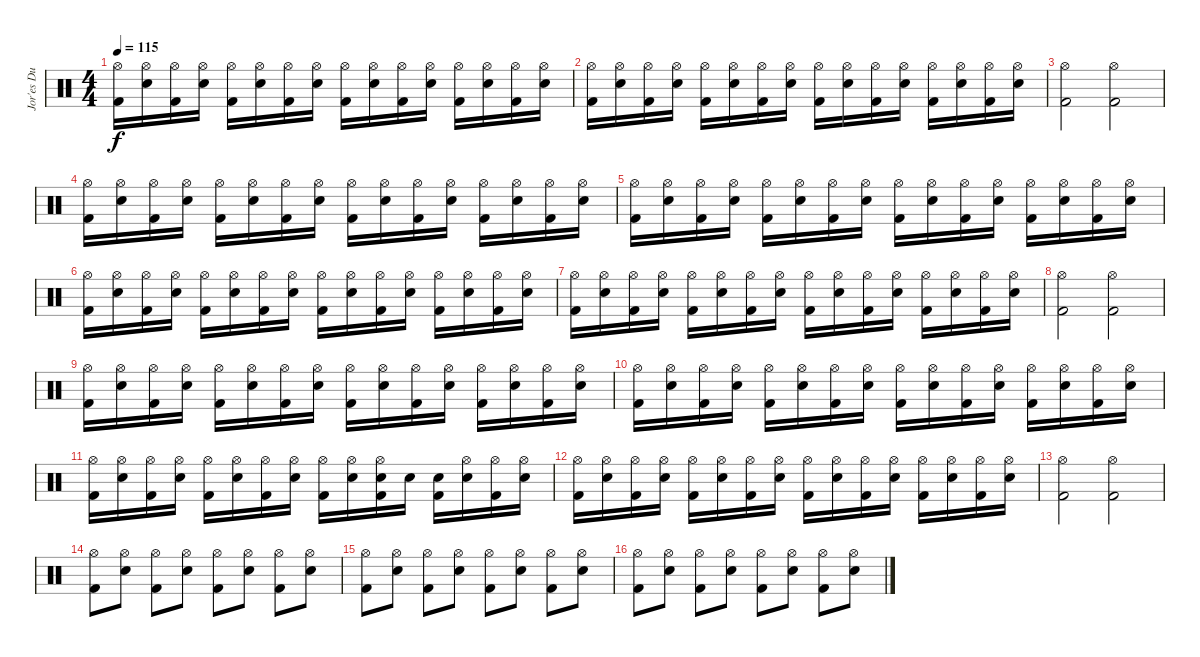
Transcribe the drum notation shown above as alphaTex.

\track ("Jor'es Du True" "Jor'es Du ") {instrument percussion}
\staff {score}
\articulation defaults
\ts (4 4)
\tempo 115
\clef neutral
\ks c
("Hi-Hat (open)" "Kick (hit) 2").16{dy f} ("Hi-Hat (open)" "Electric Snare (hit)").16 ("Hi-Hat (open)" "Kick (hit) 2").16 ("Hi-Hat (open)" "Electric Snare (hit)").16 ("Hi-Hat (open)" "Kick (hit) 2").16 ("Hi-Hat (open)" "Electric Snare (hit)").16 ("Hi-Hat (open)" "Kick (hit) 2").16 ("Hi-Hat (open)" "Electric Snare (hit)").16 ("Hi-Hat (open)" "Kick (hit) 2").16 ("Hi-Hat (open)" "Electric Snare (hit)").16 ("Hi-Hat (open)" "Kick (hit) 2").16 ("Hi-Hat (open)" "Electric Snare (hit)").16 ("Hi-Hat (open)" "Kick (hit) 2").16 ("Hi-Hat (open)" "Electric Snare (hit)").16 ("Hi-Hat (open)" "Kick (hit) 2").16 ("Hi-Hat (open)" "Electric Snare (hit)").16 |
("Hi-Hat (open)" "Kick (hit) 2").16 ("Hi-Hat (open)" "Electric Snare (hit)").16 ("Hi-Hat (open)" "Kick (hit) 2").16 ("Hi-Hat (open)" "Electric Snare (hit)").16 ("Hi-Hat (open)" "Kick (hit) 2").16 ("Hi-Hat (open)" "Electric Snare (hit)").16 ("Hi-Hat (open)" "Kick (hit) 2").16 ("Hi-Hat (open)" "Electric Snare (hit)").16 ("Hi-Hat (open)" "Kick (hit) 2").16 ("Hi-Hat (open)" "Electric Snare (hit)").16 ("Hi-Hat (open)" "Kick (hit) 2").16 ("Hi-Hat (open)" "Electric Snare (hit)").16 ("Hi-Hat (open)" "Kick (hit) 2").16 ("Hi-Hat (open)" "Electric Snare (hit)").16 ("Hi-Hat (open)" "Kick (hit) 2").16 ("Hi-Hat (open)" "Electric Snare (hit)").16 |
("Hi-Hat (open)" "Kick (hit) 2").2 ("Hi-Hat (open)" "Kick (hit) 2").2 |
("Hi-Hat (open)" "Kick (hit) 2").16 ("Hi-Hat (open)" "Electric Snare (hit)").16 ("Hi-Hat (open)" "Kick (hit) 2").16 ("Hi-Hat (open)" "Electric Snare (hit)").16 ("Hi-Hat (open)" "Kick (hit) 2").16 ("Hi-Hat (open)" "Electric Snare (hit)").16 ("Hi-Hat (open)" "Kick (hit) 2").16 ("Hi-Hat (open)" "Electric Snare (hit)").16 ("Hi-Hat (open)" "Kick (hit) 2").16 ("Hi-Hat (open)" "Electric Snare (hit)").16 ("Hi-Hat (open)" "Kick (hit) 2").16 ("Hi-Hat (open)" "Electric Snare (hit)").16 ("Hi-Hat (open)" "Kick (hit) 2").16 ("Hi-Hat (open)" "Electric Snare (hit)").16 ("Hi-Hat (open)" "Kick (hit) 2").16 ("Hi-Hat (open)" "Electric Snare (hit)").16 |
("Hi-Hat (open)" "Kick (hit) 2").16 ("Hi-Hat (open)" "Electric Snare (hit)").16 ("Hi-Hat (open)" "Kick (hit) 2").16 ("Hi-Hat (open)" "Electric Snare (hit)").16 ("Hi-Hat (open)" "Kick (hit) 2").16 ("Hi-Hat (open)" "Electric Snare (hit)").16 ("Hi-Hat (open)" "Kick (hit) 2").16 ("Hi-Hat (open)" "Electric Snare (hit)").16 ("Hi-Hat (open)" "Kick (hit) 2").16 ("Hi-Hat (open)" "Electric Snare (hit)").16 ("Hi-Hat (open)" "Kick (hit) 2").16 ("Hi-Hat (open)" "Electric Snare (hit)").16 ("Hi-Hat (open)" "Kick (hit) 2").16 ("Hi-Hat (open)" "Electric Snare (hit)").16 ("Hi-Hat (open)" "Kick (hit) 2").16 ("Hi-Hat (open)" "Electric Snare (hit)").16 |
("Hi-Hat (open)" "Kick (hit) 2").16 ("Hi-Hat (open)" "Electric Snare (hit)").16 ("Hi-Hat (open)" "Kick (hit) 2").16 ("Hi-Hat (open)" "Electric Snare (hit)").16 ("Hi-Hat (open)" "Kick (hit) 2").16 ("Hi-Hat (open)" "Electric Snare (hit)").16 ("Hi-Hat (open)" "Kick (hit) 2").16 ("Hi-Hat (open)" "Electric Snare (hit)").16 ("Hi-Hat (open)" "Kick (hit) 2").16 ("Hi-Hat (open)" "Electric Snare (hit)").16 ("Hi-Hat (open)" "Kick (hit) 2").16 ("Hi-Hat (open)" "Electric Snare (hit)").16 ("Hi-Hat (open)" "Kick (hit) 2").16 ("Hi-Hat (open)" "Electric Snare (hit)").16 ("Hi-Hat (open)" "Kick (hit) 2").16 ("Hi-Hat (open)" "Electric Snare (hit)").16 |
("Hi-Hat (open)" "Kick (hit) 2").16 ("Hi-Hat (open)" "Electric Snare (hit)").16 ("Hi-Hat (open)" "Kick (hit) 2").16 ("Hi-Hat (open)" "Electric Snare (hit)").16 ("Hi-Hat (open)" "Kick (hit) 2").16 ("Hi-Hat (open)" "Electric Snare (hit)").16 ("Hi-Hat (open)" "Kick (hit) 2").16 ("Hi-Hat (open)" "Electric Snare (hit)").16 ("Hi-Hat (open)" "Kick (hit) 2").16 ("Hi-Hat (open)" "Electric Snare (hit)").16 ("Hi-Hat (open)" "Kick (hit) 2").16 ("Hi-Hat (open)" "Electric Snare (hit)").16 ("Hi-Hat (open)" "Kick (hit) 2").16 ("Hi-Hat (open)" "Electric Snare (hit)").16 ("Hi-Hat (open)" "Kick (hit) 2").16 ("Hi-Hat (open)" "Electric Snare (hit)").16 |
("Hi-Hat (open)" "Kick (hit) 2").2 ("Hi-Hat (open)" "Kick (hit) 2").2 |
("Hi-Hat (open)" "Kick (hit) 2").16 ("Hi-Hat (open)" "Electric Snare (hit)").16 ("Hi-Hat (open)" "Kick (hit) 2").16 ("Hi-Hat (open)" "Electric Snare (hit)").16 ("Hi-Hat (open)" "Kick (hit) 2").16 ("Hi-Hat (open)" "Electric Snare (hit)").16 ("Hi-Hat (open)" "Kick (hit) 2").16 ("Hi-Hat (open)" "Electric Snare (hit)").16 ("Hi-Hat (open)" "Kick (hit) 2").16 ("Hi-Hat (open)" "Electric Snare (hit)").16 ("Hi-Hat (open)" "Kick (hit) 2").16 ("Hi-Hat (open)" "Electric Snare (hit)").16 ("Hi-Hat (open)" "Kick (hit) 2").16 ("Hi-Hat (open)" "Electric Snare (hit)").16 ("Hi-Hat (open)" "Kick (hit) 2").16 ("Hi-Hat (open)" "Electric Snare (hit)").16 |
("Hi-Hat (open)" "Kick (hit) 2").16 ("Hi-Hat (open)" "Electric Snare (hit)").16 ("Hi-Hat (open)" "Kick (hit) 2").16 ("Hi-Hat (open)" "Electric Snare (hit)").16 ("Hi-Hat (open)" "Kick (hit) 2").16 ("Hi-Hat (open)" "Electric Snare (hit)").16 ("Hi-Hat (open)" "Kick (hit) 2").16 ("Hi-Hat (open)" "Electric Snare (hit)").16 ("Hi-Hat (open)" "Kick (hit) 2").16 ("Hi-Hat (open)" "Electric Snare (hit)").16 ("Hi-Hat (open)" "Kick (hit) 2").16 ("Hi-Hat (open)" "Electric Snare (hit)").16 ("Hi-Hat (open)" "Kick (hit) 2").16 ("Hi-Hat (open)" "Electric Snare (hit)").16 ("Hi-Hat (open)" "Kick (hit) 2").16 ("Hi-Hat (open)" "Electric Snare (hit)").16 |
("Hi-Hat (open)" "Kick (hit) 2").16 ("Hi-Hat (open)" "Electric Snare (hit)").16 ("Hi-Hat (open)" "Kick (hit) 2").16 ("Hi-Hat (open)" "Electric Snare (hit)").16 ("Hi-Hat (open)" "Kick (hit) 2").16 ("Hi-Hat (open)" "Electric Snare (hit)").16 ("Hi-Hat (open)" "Kick (hit) 2").16 ("Hi-Hat (open)" "Electric Snare (hit)").16 ("Hi-Hat (open)" "Kick (hit) 2").16 ("Hi-Hat (open)" "Electric Snare (hit)").16 ("Hi-Hat (open)" "Electric Snare (hit)" "Kick (hit) 2").16 "Electric Snare (hit)".16 ("Electric Snare (hit)" "Kick (hit) 2").16 ("Hi-Hat (open)" "Electric Snare (hit)").16 ("Hi-Hat (open)" "Kick (hit) 2").16 ("Hi-Hat (open)" "Electric Snare (hit)").16 |
("Hi-Hat (open)" "Kick (hit) 2").16 ("Hi-Hat (open)" "Electric Snare (hit)").16 ("Hi-Hat (open)" "Kick (hit) 2").16 ("Hi-Hat (open)" "Electric Snare (hit)").16 ("Hi-Hat (open)" "Kick (hit) 2").16 ("Hi-Hat (open)" "Electric Snare (hit)").16 ("Hi-Hat (open)" "Kick (hit) 2").16 ("Hi-Hat (open)" "Electric Snare (hit)").16 ("Hi-Hat (open)" "Kick (hit) 2").16 ("Hi-Hat (open)" "Electric Snare (hit)").16 ("Hi-Hat (open)" "Kick (hit) 2").16 ("Hi-Hat (open)" "Electric Snare (hit)").16 ("Hi-Hat (open)" "Kick (hit) 2").16 ("Hi-Hat (open)" "Electric Snare (hit)").16 ("Hi-Hat (open)" "Kick (hit) 2").16 ("Hi-Hat (open)" "Electric Snare (hit)").16 |
("Hi-Hat (open)" "Kick (hit) 2").2 ("Hi-Hat (open)" "Kick (hit) 2").2 |
("Hi-Hat (open)" "Kick (hit) 2").8 ("Hi-Hat (open)" "Electric Snare (hit)").8 ("Hi-Hat (open)" "Kick (hit) 2").8 ("Hi-Hat (open)" "Electric Snare (hit)").8 ("Hi-Hat (open)" "Kick (hit) 2").8 ("Hi-Hat (open)" "Electric Snare (hit)").8 ("Hi-Hat (open)" "Kick (hit) 2").8 ("Hi-Hat (open)" "Electric Snare (hit)").8 |
("Hi-Hat (open)" "Kick (hit) 2").8 ("Hi-Hat (open)" "Electric Snare (hit)").8 ("Hi-Hat (open)" "Kick (hit) 2").8 ("Hi-Hat (open)" "Electric Snare (hit)").8 ("Hi-Hat (open)" "Kick (hit) 2").8 ("Hi-Hat (open)" "Electric Snare (hit)").8 ("Hi-Hat (open)" "Kick (hit) 2").8 ("Hi-Hat (open)" "Electric Snare (hit)").8 |
("Hi-Hat (open)" "Kick (hit) 2").8 ("Hi-Hat (open)" "Electric Snare (hit)").8 ("Hi-Hat (open)" "Kick (hit) 2").8 ("Hi-Hat (open)" "Electric Snare (hit)").8 ("Hi-Hat (open)" "Kick (hit) 2").8 ("Hi-Hat (open)" "Electric Snare (hit)").8 ("Hi-Hat (open)" "Kick (hit) 2").8 ("Hi-Hat (open)" "Electric Snare (hit)").8
